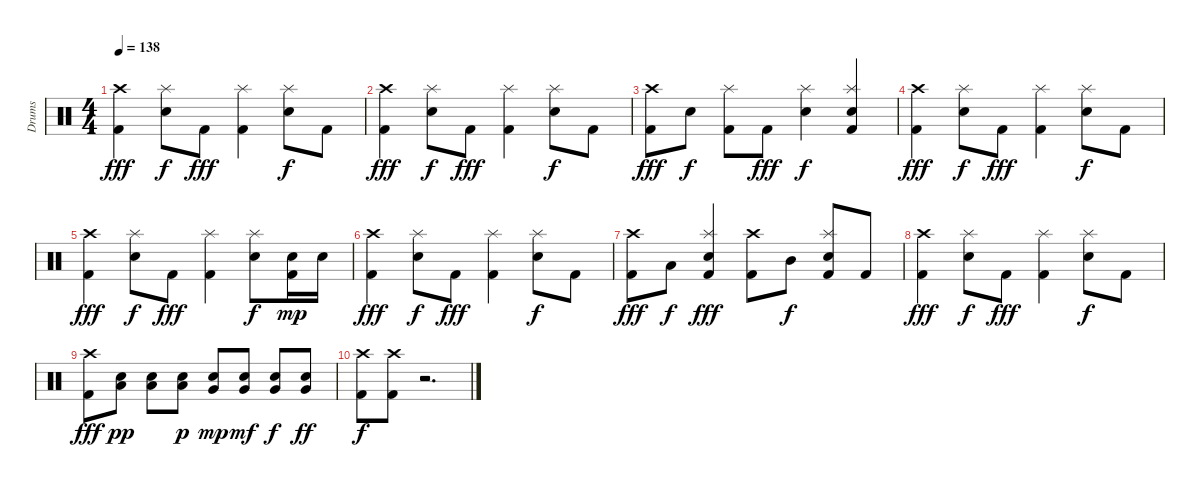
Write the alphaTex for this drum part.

\track ("Drums" "Drums") {instrument percussion}
\staff {score}
\articulation defaults
\ts (4 4)
\tempo 138
\clef neutral
\ks c
("Crash high (hit)" "Kick (hit) 2").4{dy fff} ("Splash (hit)" "Snare (hit) 2").8{dy f} "Kick (hit) 2".8{dy fff} ("Splash (hit)" "Kick (hit) 2").4 ("Splash (hit)" "Snare (hit) 2").8{dy f} "Kick (hit) 2".8 |
("Crash high (hit)" "Kick (hit) 2").4{dy fff} ("Splash (hit)" "Snare (hit) 2").8{dy f} "Kick (hit) 2".8{dy fff} ("Splash (hit)" "Kick (hit) 2").4 ("Splash (hit)" "Snare (hit) 2").8{dy f} "Kick (hit) 2".8 |
("Crash high (hit)" "Kick (hit) 2").8{dy fff} "Snare (hit) 2".8{dy f} ("Splash (hit)" "Kick (hit) 2").8 "Kick (hit) 2".8{dy fff} ("Splash (hit)" "Snare (hit) 2").4{dy f} ("Splash (hit)" "Snare (hit) 2" "Kick (hit) 2").4 |
("Crash high (hit)" "Kick (hit) 2").4{dy fff} ("Splash (hit)" "Snare (hit) 2").8{dy f} "Kick (hit) 2".8{dy fff} ("Splash (hit)" "Kick (hit) 2").4 ("Splash (hit)" "Snare (hit) 2").8{dy f} "Kick (hit) 2".8 |
("Crash high (hit)" "Kick (hit) 2").4{dy fff} ("Splash (hit)" "Snare (hit) 2").8{dy f} "Kick (hit) 2".8{dy fff} ("Splash (hit)" "Kick (hit) 2").4 ("Splash (hit)" "Snare (hit) 2").8{dy f} ("Snare (hit) 2" "Kick (hit) 2").16{dy mp} "Snare (hit) 2".16 |
("Crash high (hit)" "Kick (hit) 2").4{dy fff} ("Splash (hit)" "Snare (hit) 2").8{dy f} "Kick (hit) 2".8{dy fff} ("Splash (hit)" "Kick (hit) 2").4 ("Splash (hit)" "Snare (hit) 2").8{dy f} "Kick (hit) 2".8 |
("Crash high (hit)" "Kick (hit) 2").8{dy fff} "Low Tom (hit)".8{dy f} ("Splash (hit)" "Snare (hit) 2" "Kick (hit) 2").4{dy fff} ("Crash high (hit)" "Kick (hit) 2").8 "Mid Tom (hit)".8{dy f} ("Splash (hit)" "Snare (hit) 2" "Kick (hit) 2").8 "Kick (hit) 2".8 |
("Crash high (hit)" "Kick (hit) 2").4{dy fff} ("Splash (hit)" "Snare (hit) 2").8{dy f} "Kick (hit) 2".8{dy fff} ("Splash (hit)" "Kick (hit) 2").4 ("Splash (hit)" "Snare (hit) 2").8{dy f} "Kick (hit) 2".8 |
("Crash high (hit)" "Kick (hit) 2").8{dy fff} ("Snare (hit) 2" "Low Floor Tom (hit)").8{dy pp} ("Snare (hit) 2" "Low Floor Tom (hit)").8 ("Snare (hit) 2" "Low Floor Tom (hit)").8{dy p} ("Snare (hit) 2" "Very Low Tom (hit)").8{dy mp} ("Snare (hit) 2" "Very Low Tom (hit)").8{dy mf} ("Snare (hit) 2" "Very Low Tom (hit)").8{dy f} ("Snare (hit) 2" "Very Low Tom (hit)").8{dy ff} |
("Crash high (hit)" "Kick (hit) 2").8{dy f} ("Crash high (hit)" "Kick (hit) 2").8 r.2{d}
